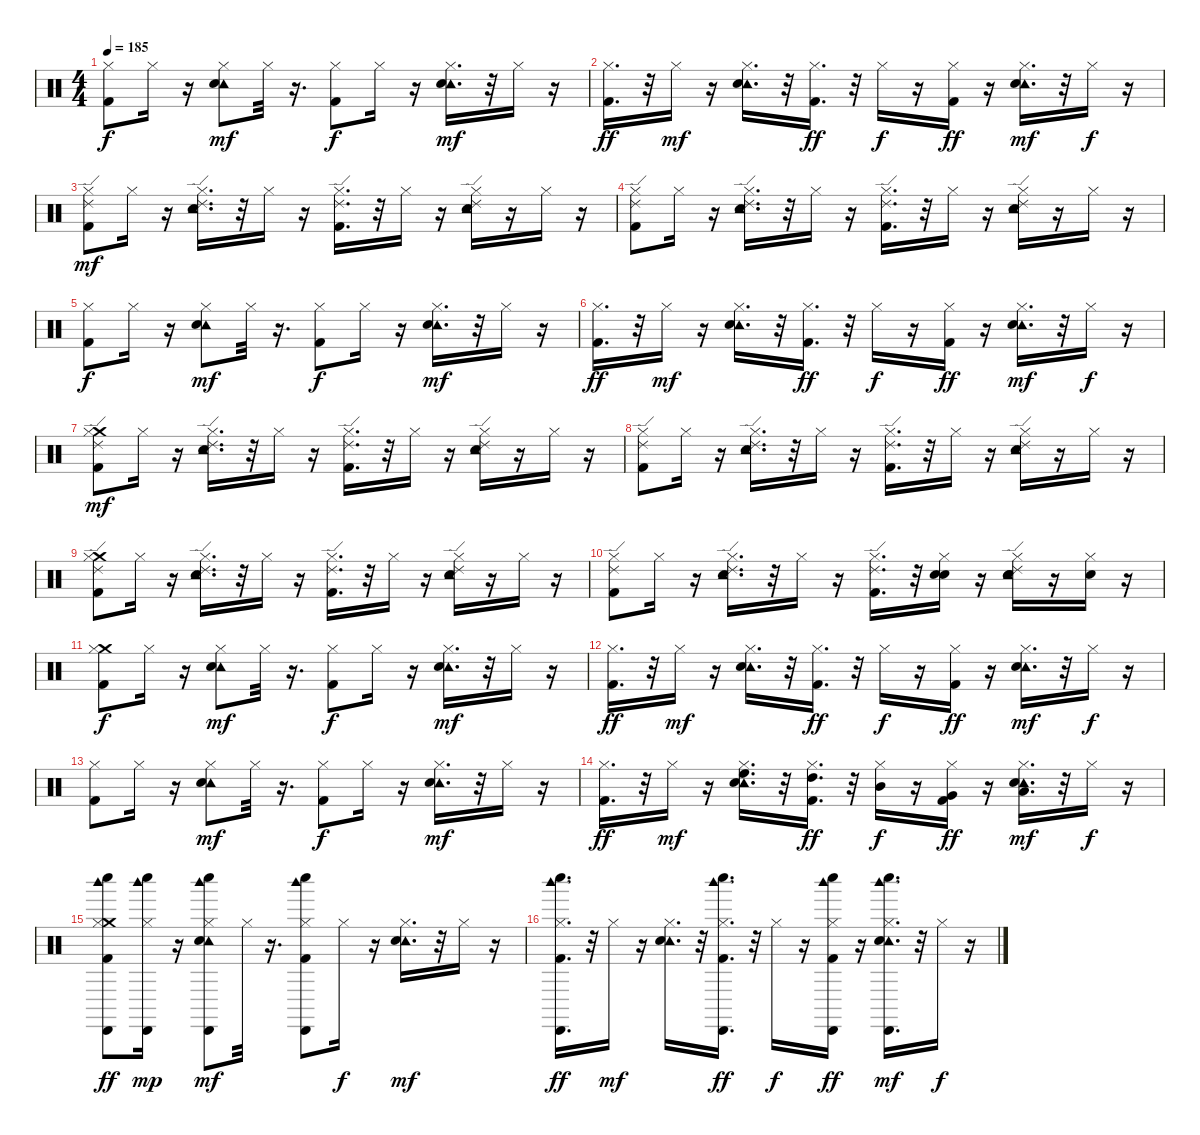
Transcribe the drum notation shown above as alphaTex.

\track "" {instrument percussion}
\staff {score}
\articulation defaults
\ts (4 4)
\tempo 185
\clef neutral
\ks c
("Hi-Hat (closed)" "Kick (hit) 2").8{dy f} "Hi-Hat (closed)".16 r.16 ("Tambourine (hit)" "Hi-Hat (closed)" "Snare (hit) 2").8{dy mf} "Hi-Hat (closed)".32 r.16{d} ("Hi-Hat (closed)" "Kick (hit) 2").8{dy f} "Hi-Hat (closed)".16 r.16 ("Tambourine (hit)" "Hi-Hat (closed)" "Snare (hit) 2").16{d dy mf} r.32 "Hi-Hat (closed)".16 r.16 |
("Hi-Hat (closed)" "Kick (hit) 2").16{d dy ff} r.32 "Hi-Hat (closed)".16{dy mf} r.16 ("Tambourine (hit)" "Hi-Hat (closed)" "Snare (hit) 2").16{d} r.32 ("Hi-Hat (closed)" "Kick (hit) 2").16{d dy ff} r.32 "Hi-Hat (closed)".16{dy f} r.16 ("Hi-Hat (closed)" "Kick (hit) 2").16{dy ff} r.16 ("Tambourine (hit)" "Hi-Hat (closed)" "Snare (hit) 2").16{d dy mf} r.32 "Hi-Hat (closed)".16{dy f} r.16 |
("Ride (edge) 2" "Hi-Hat (closed)" "Kick (hit) 2").8{dy mf} "Hi-Hat (closed)".16 r.16 ("Ride (edge) 2" "Hi-Hat (closed)" "Tambourine (hit)" "Snare (hit) 2").16{d} r.32 "Hi-Hat (closed)".16 r.16 ("Ride (edge) 2" "Hi-Hat (closed)" "Kick (hit) 2").16{d} r.32 "Hi-Hat (closed)".16 r.16 ("Ride (edge) 2" "Hi-Hat (closed)" "Tambourine (hit)" "Snare (hit) 2").16 r.16 "Hi-Hat (closed)".16 r.16 |
("Ride (edge) 2" "Hi-Hat (closed)" "Kick (hit) 2").8 "Hi-Hat (closed)".16 r.16 ("Ride (edge) 2" "Hi-Hat (closed)" "Tambourine (hit)" "Snare (hit) 2").16{d} r.32 "Hi-Hat (closed)".16 r.16 ("Ride (edge) 2" "Hi-Hat (closed)" "Kick (hit) 2").16{d} r.32 "Hi-Hat (closed)".16 r.16 ("Ride (edge) 2" "Hi-Hat (closed)" "Tambourine (hit)" "Snare (hit) 2").16 r.16 "Hi-Hat (closed)".16 r.16 |
("Hi-Hat (closed)" "Kick (hit) 2").8{dy f} "Hi-Hat (closed)".16 r.16 ("Tambourine (hit)" "Hi-Hat (closed)" "Snare (hit) 2").8{dy mf} "Hi-Hat (closed)".32 r.16{d} ("Hi-Hat (closed)" "Kick (hit) 2").8{dy f} "Hi-Hat (closed)".16 r.16 ("Tambourine (hit)" "Hi-Hat (closed)" "Snare (hit) 2").16{d dy mf} r.32 "Hi-Hat (closed)".16 r.16 |
("Hi-Hat (closed)" "Kick (hit) 2").16{d dy ff} r.32 "Hi-Hat (closed)".16{dy mf} r.16 ("Tambourine (hit)" "Hi-Hat (closed)" "Snare (hit) 2").16{d} r.32 ("Hi-Hat (closed)" "Kick (hit) 2").16{d dy ff} r.32 "Hi-Hat (closed)".16{dy f} r.16 ("Hi-Hat (closed)" "Kick (hit) 2").16{dy ff} r.16 ("Tambourine (hit)" "Hi-Hat (closed)" "Snare (hit) 2").16{d dy mf} r.32 "Hi-Hat (closed)".16{dy f} r.16 |
("Crash medium (hit)" "Ride (edge) 2" "Hi-Hat (closed)" "Kick (hit) 2").8{dy mf} "Hi-Hat (closed)".16 r.16 ("Ride (edge) 2" "Hi-Hat (closed)" "Tambourine (hit)" "Snare (hit) 2").16{d} r.32 "Hi-Hat (closed)".16 r.16 ("Ride (edge) 2" "Hi-Hat (closed)" "Kick (hit) 2").16{d} r.32 "Hi-Hat (closed)".16 r.16 ("Ride (edge) 2" "Hi-Hat (closed)" "Tambourine (hit)" "Snare (hit) 2").16 r.16 "Hi-Hat (closed)".16 r.16 |
("Ride (edge) 2" "Hi-Hat (closed)" "Kick (hit) 2").8 "Hi-Hat (closed)".16 r.16 ("Ride (edge) 2" "Hi-Hat (closed)" "Tambourine (hit)" "Snare (hit) 2").16{d} r.32 "Hi-Hat (closed)".16 r.16 ("Ride (edge) 2" "Hi-Hat (closed)" "Kick (hit) 2").16{d} r.32 "Hi-Hat (closed)".16 r.16 ("Ride (edge) 2" "Hi-Hat (closed)" "Tambourine (hit)" "Snare (hit) 2").16 r.16 "Hi-Hat (closed)".16 r.16 |
("Crash medium (hit)" "Ride (edge) 2" "Hi-Hat (closed)" "Kick (hit) 2").8 "Hi-Hat (closed)".16 r.16 ("Ride (edge) 2" "Hi-Hat (closed)" "Tambourine (hit)" "Snare (hit) 2").16{d} r.32 "Hi-Hat (closed)".16 r.16 ("Ride (edge) 2" "Hi-Hat (closed)" "Kick (hit) 2").16{d} r.32 "Hi-Hat (closed)".16 r.16 ("Ride (edge) 2" "Hi-Hat (closed)" "Tambourine (hit)" "Snare (hit) 2").16 r.16 "Hi-Hat (closed)".16 r.16 |
("Ride (edge) 2" "Hi-Hat (closed)" "Kick (hit) 2").8 "Hi-Hat (closed)".16 r.16 ("Ride (edge) 2" "Hi-Hat (closed)" "Tambourine (hit)" "Snare (hit) 2").16{d} r.32 "Hi-Hat (closed)".16 r.16 ("Ride (edge) 2" "Hi-Hat (closed)" "Kick (hit) 2").16{d} r.32 ("Snare (hit) 2" "Electric Snare (hit)" "Hi-Hat (closed)").16 r.16 ("Snare (hit) 2" "Ride (edge) 2" "Hi-Hat (closed)" "Tambourine (hit)" "Snare (hit) 2").16 r.16 ("Snare (hit) 2" "Hi-Hat (closed)").16 r.16 |
("Crash medium (hit)" "Hi-Hat (closed)" "Kick (hit) 2").8{dy f} "Hi-Hat (closed)".16 r.16 ("Tambourine (hit)" "Hi-Hat (closed)" "Snare (hit) 2").8{dy mf} "Hi-Hat (closed)".32 r.16{d} ("Hi-Hat (closed)" "Kick (hit) 2").8{dy f} "Hi-Hat (closed)".16 r.16 ("Tambourine (hit)" "Hi-Hat (closed)" "Snare (hit) 2").16{d dy mf} r.32 "Hi-Hat (closed)".16 r.16 |
("Hi-Hat (closed)" "Kick (hit) 2").16{d dy ff} r.32 "Hi-Hat (closed)".16{dy mf} r.16 ("Tambourine (hit)" "Hi-Hat (closed)" "Snare (hit) 2").16{d} r.32 ("Hi-Hat (closed)" "Kick (hit) 2").16{d dy ff} r.32 "Hi-Hat (closed)".16{dy f} r.16 ("Hi-Hat (closed)" "Kick (hit) 2").16{dy ff} r.16 ("Tambourine (hit)" "Hi-Hat (closed)" "Snare (hit) 2").16{d dy mf} r.32 "Hi-Hat (closed)".16{dy f} r.16 |
("Hi-Hat (closed)" "Kick (hit) 2").8 "Hi-Hat (closed)".16 r.16 ("Tambourine (hit)" "Hi-Hat (closed)" "Snare (hit) 2").8{dy mf} "Hi-Hat (closed)".32 r.16{d} ("Hi-Hat (closed)" "Kick (hit) 2").8{dy f} "Hi-Hat (closed)".16 r.16 ("Tambourine (hit)" "Hi-Hat (closed)" "Snare (hit) 2").16{d dy mf} r.32 "Hi-Hat (closed)".16 r.16 |
("Hi-Hat (closed)" "Kick (hit) 2").16{d dy ff} r.32 "Hi-Hat (closed)".16{dy mf} r.16 ("High Floor Tom (hit)" "Tambourine (hit)" "Hi-Hat (closed)" "Snare (hit) 2").16{d} r.32 ("High Tom (hit)" "Hi-Hat (closed)" "Kick (hit) 2").16{d dy ff} r.32 ("Mid Tom (hit)" "Hi-Hat (closed)").16{dy f} r.16 ("Very Low Tom (hit)" "Hi-Hat (closed)" "Kick (hit) 2").16{dy ff} r.16 ("Low Floor Tom (hit)" "Tambourine (hit)" "Hi-Hat (closed)" "Snare (hit) 2").16{d dy mf} r.32 "Hi-Hat (closed)".16{dy f} r.16 |
("Whistle low (hit)" "Cabasa (hit)" "Woodblock high (hit)" "Crash medium (hit)" "Hi-Hat (closed)" "Kick (hit) 2").8{dy ff} ("Cabasa (hit)" "Whistle low (hit)" "Woodblock high (hit)" "Hi-Hat (closed)").16{dy mp} r.16 ("Cabasa (hit)" "Whistle low (hit)" "Woodblock high (hit)" "Tambourine (hit)" "Hi-Hat (closed)" "Snare (hit) 2").8{dy mf} "Hi-Hat (closed)".32 r.16{d} ("Cabasa (hit)" "Whistle low (hit)" "Woodblock high (hit)" "Hi-Hat (closed)" "Kick (hit) 2").8 "Hi-Hat (closed)".16{dy f} r.16 ("Tambourine (hit)" "Hi-Hat (closed)" "Snare (hit) 2").16{d dy mf} r.32 "Hi-Hat (closed)".16 r.16 |
("Cabasa (hit)" "Whistle low (hit)" "Woodblock high (hit)" "Hi-Hat (closed)" "Kick (hit) 2").16{d dy ff} r.32 "Hi-Hat (closed)".16{dy mf} r.16 ("Tambourine (hit)" "Hi-Hat (closed)" "Snare (hit) 2").16{d} r.32 ("Whistle low (hit)" "Cabasa (hit)" "Woodblock high (hit)" "Hi-Hat (closed)" "Kick (hit) 2").16{d dy ff} r.32 "Hi-Hat (closed)".16{dy f} r.16 ("Cabasa (hit)" "Whistle low (hit)" "Woodblock high (hit)" "Hi-Hat (closed)" "Kick (hit) 2").16{dy ff} r.16 ("Cabasa (hit)" "Whistle low (hit)" "Woodblock high (hit)" "Tambourine (hit)" "Hi-Hat (closed)" "Snare (hit) 2").16{d dy mf} r.32 "Hi-Hat (closed)".16{dy f} r.16
